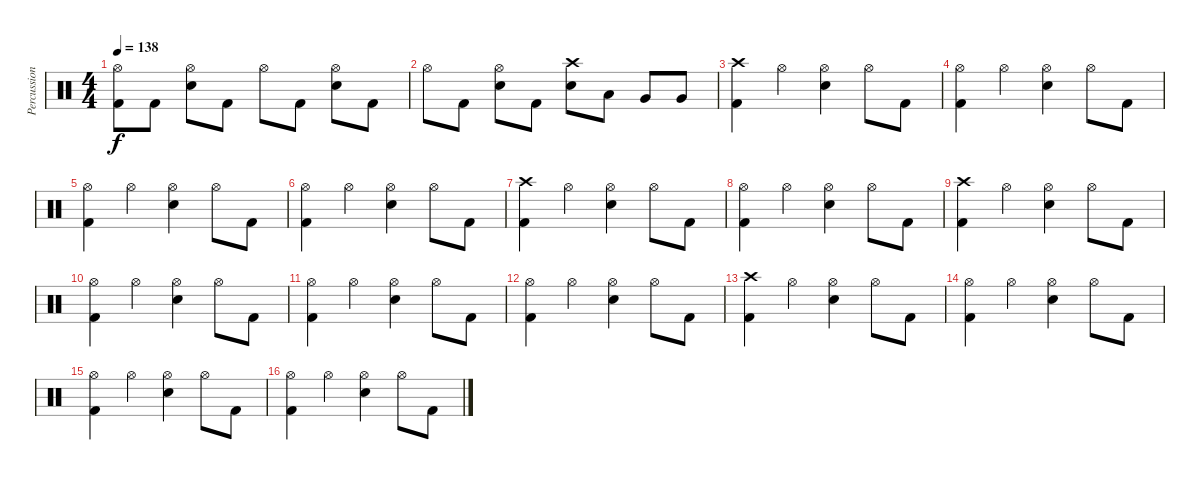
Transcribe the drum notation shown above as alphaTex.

\track ("Percussion" "Percussion") {instrument percussion}
\staff {score}
\articulation defaults
\ts (4 4)
\tempo 138
\clef neutral
\ks c
("Hi-Hat (open)" "Kick (hit) 2").8{dy f} "Kick (hit) 2".8 ("Hi-Hat (open)" "Electric Snare (hit)").8 "Kick (hit) 2".8 "Hi-Hat (open)".8 "Kick (hit) 2".8 ("Hi-Hat (open)" "Electric Snare (hit)").8 "Kick (hit) 2".8 |
"Hi-Hat (open)".8 "Kick (hit) 2".8 ("Hi-Hat (open)" "Electric Snare (hit)").8 "Kick (hit) 2".8 ("Crash high (hit)" "Electric Snare (hit)").8 "Low Tom (hit)".8 "Very Low Tom (hit)".8 "Very Low Tom (hit)".8 |
("Crash high (hit)" "Kick (hit) 2").4 "Hi-Hat (open)".4 ("Hi-Hat (open)" "Electric Snare (hit)").4 "Hi-Hat (open)".8 "Kick (hit) 2".8 |
("Hi-Hat (open)" "Kick (hit) 2").4 "Hi-Hat (open)".4 ("Hi-Hat (open)" "Electric Snare (hit)").4 "Hi-Hat (open)".8 "Kick (hit) 2".8 |
("Hi-Hat (open)" "Kick (hit) 2").4 "Hi-Hat (open)".4 ("Hi-Hat (open)" "Electric Snare (hit)").4 "Hi-Hat (open)".8 "Kick (hit) 2".8 |
("Hi-Hat (open)" "Kick (hit) 2").4 "Hi-Hat (open)".4 ("Hi-Hat (open)" "Electric Snare (hit)").4 "Hi-Hat (open)".8 "Kick (hit) 2".8 |
("Crash high (hit)" "Kick (hit) 2").4 "Hi-Hat (open)".4 ("Hi-Hat (open)" "Electric Snare (hit)").4 "Hi-Hat (open)".8 "Kick (hit) 2".8 |
("Hi-Hat (open)" "Kick (hit) 2").4 "Hi-Hat (open)".4 ("Hi-Hat (open)" "Electric Snare (hit)").4 "Hi-Hat (open)".8 "Kick (hit) 2".8 |
("Crash high (hit)" "Kick (hit) 2").4 "Hi-Hat (open)".4 ("Hi-Hat (open)" "Electric Snare (hit)").4 "Hi-Hat (open)".8 "Kick (hit) 2".8 |
("Hi-Hat (open)" "Kick (hit) 2").4 "Hi-Hat (open)".4 ("Hi-Hat (open)" "Electric Snare (hit)").4 "Hi-Hat (open)".8 "Kick (hit) 2".8 |
("Hi-Hat (open)" "Kick (hit) 2").4 "Hi-Hat (open)".4 ("Hi-Hat (open)" "Electric Snare (hit)").4 "Hi-Hat (open)".8 "Kick (hit) 2".8 |
("Hi-Hat (open)" "Kick (hit) 2").4 "Hi-Hat (open)".4 ("Hi-Hat (open)" "Electric Snare (hit)").4 "Hi-Hat (open)".8 "Kick (hit) 2".8 |
("Crash high (hit)" "Kick (hit) 2").4 "Hi-Hat (open)".4 ("Hi-Hat (open)" "Electric Snare (hit)").4 "Hi-Hat (open)".8 "Kick (hit) 2".8 |
("Hi-Hat (open)" "Kick (hit) 2").4 "Hi-Hat (open)".4 ("Hi-Hat (open)" "Electric Snare (hit)").4 "Hi-Hat (open)".8 "Kick (hit) 2".8 |
("Hi-Hat (open)" "Kick (hit) 2").4 "Hi-Hat (open)".4 ("Hi-Hat (open)" "Electric Snare (hit)").4 "Hi-Hat (open)".8 "Kick (hit) 2".8 |
("Hi-Hat (open)" "Kick (hit) 2").4 "Hi-Hat (open)".4 ("Hi-Hat (open)" "Electric Snare (hit)").4 "Hi-Hat (open)".8 "Kick (hit) 2".8
